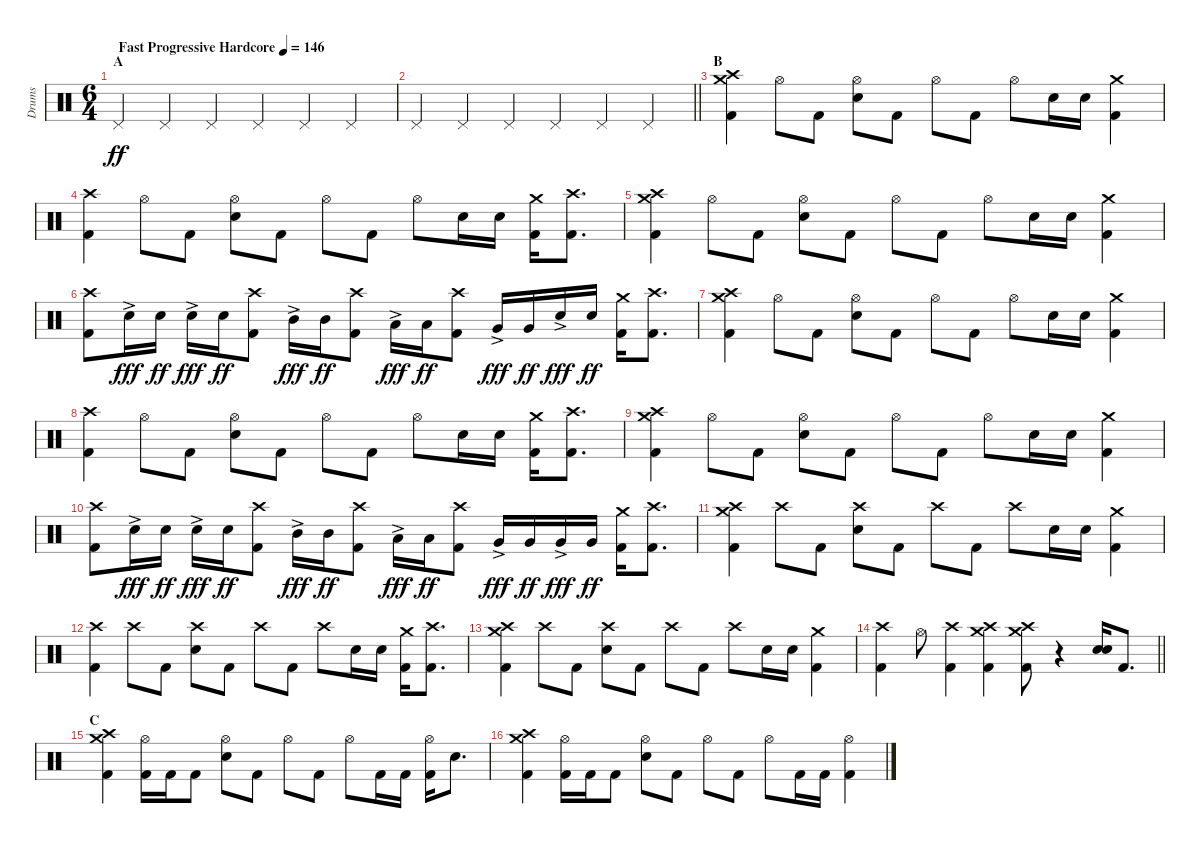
\track ("Drums" "Drums") {instrument percussion}
\staff {score}
\articulation defaults
\ts (6 4)
\section ("" "A")
\tempo (146 "Fast Progressive Hardcore")
\clef neutral
\ks c "Pedal Hi-Hat (hit)".4{dy ff} "Pedal Hi-Hat (hit)".4 "Pedal Hi-Hat (hit)".4 "Pedal Hi-Hat (hit)".4 "Pedal Hi-Hat (hit)".4 "Pedal Hi-Hat (hit)".4
|
\barLineRight lightlight "Pedal Hi-Hat (hit)".4 "Pedal Hi-Hat (hit)".4 "Pedal Hi-Hat (hit)".4 "Pedal Hi-Hat (hit)".4 "Pedal Hi-Hat (hit)".4 "Pedal Hi-Hat (hit)".4
|
\section ("" "B")
("Crash medium (hit)" "Crash high (hit)" "Kick (hit) 2").4 "Hi-Hat (open)".8 "Kick (hit) 2".8 ("Hi-Hat (open)" "Electric Snare (hit)").8 "Kick (hit) 2".8 "Hi-Hat (open)".8 "Kick (hit) 2".8 "Hi-Hat (open)".8 "Electric Snare (hit)".16 "Electric Snare (hit)".16 ("Crash medium (hit)" "Kick (hit) 2").4 |
("Crash high (hit)" "Kick (hit) 2").4 "Hi-Hat (open)".8 "Kick (hit) 2".8 ("Hi-Hat (open)" "Electric Snare (hit)").8 "Kick (hit) 2".8 "Hi-Hat (open)".8 "Kick (hit) 2".8 "Hi-Hat (open)".8 "Electric Snare (hit)".16 "Electric Snare (hit)".16 ("Crash medium (hit)" "Kick (hit) 2").16 ("Crash high (hit)" "Kick (hit) 2").8{d} |
("Crash medium (hit)" "Crash high (hit)" "Kick (hit) 2").4 "Hi-Hat (open)".8 "Kick (hit) 2".8 ("Hi-Hat (open)" "Electric Snare (hit)").8 "Kick (hit) 2".8 "Hi-Hat (open)".8 "Kick (hit) 2".8 "Hi-Hat (open)".8 "Electric Snare (hit)".16 "Electric Snare (hit)".16 ("Crash medium (hit)" "Kick (hit) 2").4 |
("Crash high (hit)" "Kick (hit) 2").8 "Electric Snare (hit)"{ac}.16{dy fff} "Electric Snare (hit)".16{dy ff} "Electric Snare (hit)"{ac}.16{dy fff} "Electric Snare (hit)".16{dy ff} ("Crash high (hit)" "Kick (hit) 2").8 "Mid Tom (hit)"{ac}.16{dy fff} "Mid Tom (hit)".16{dy ff} ("Crash high (hit)" "Kick (hit) 2").8 "Low Tom (hit)"{ac}.16{dy fff} "Low Tom (hit)".16{dy ff} ("Crash high (hit)" "Kick (hit) 2").8 "Very Low Tom (hit)"{ac}.16{dy fff} "Very Low Tom (hit)".16{dy ff} "Electric Snare (hit)"{ac}.16{dy fff} "Electric Snare (hit)".16{dy ff} ("Crash medium (hit)" "Kick (hit) 2").16 ("Crash high (hit)" "Kick (hit) 2").8{d} |
("Crash medium (hit)" "Crash high (hit)" "Kick (hit) 2").4 "Hi-Hat (open)".8 "Kick (hit) 2".8 ("Hi-Hat (open)" "Electric Snare (hit)").8 "Kick (hit) 2".8 "Hi-Hat (open)".8 "Kick (hit) 2".8 "Hi-Hat (open)".8 "Electric Snare (hit)".16 "Electric Snare (hit)".16 ("Crash medium (hit)" "Kick (hit) 2").4 |
("Crash high (hit)" "Kick (hit) 2").4 "Hi-Hat (open)".8 "Kick (hit) 2".8 ("Hi-Hat (open)" "Electric Snare (hit)").8 "Kick (hit) 2".8 "Hi-Hat (open)".8 "Kick (hit) 2".8 "Hi-Hat (open)".8 "Electric Snare (hit)".16 "Electric Snare (hit)".16 ("Crash medium (hit)" "Kick (hit) 2").16 ("Crash high (hit)" "Kick (hit) 2").8{d} |
("Crash medium (hit)" "Crash high (hit)" "Kick (hit) 2").4 "Hi-Hat (open)".8 "Kick (hit) 2".8 ("Hi-Hat (open)" "Electric Snare (hit)").8 "Kick (hit) 2".8 "Hi-Hat (open)".8 "Kick (hit) 2".8 "Hi-Hat (open)".8 "Electric Snare (hit)".16 "Electric Snare (hit)".16 ("Crash medium (hit)" "Kick (hit) 2").4 |
("Crash high (hit)" "Kick (hit) 2").8 "Electric Snare (hit)"{ac}.16{dy fff} "Electric Snare (hit)".16{dy ff} "Electric Snare (hit)"{ac}.16{dy fff} "Electric Snare (hit)".16{dy ff} ("Crash high (hit)" "Kick (hit) 2").8 "Mid Tom (hit)"{ac}.16{dy fff} "Mid Tom (hit)".16{dy ff} ("Crash high (hit)" "Kick (hit) 2").8 "Low Tom (hit)"{ac}.16{dy fff} "Low Tom (hit)".16{dy ff} ("Crash high (hit)" "Kick (hit) 2").8 "Very Low Tom (hit)"{ac}.16{dy fff} "Very Low Tom (hit)".16{dy ff} "Very Low Tom (hit)"{ac}.16{dy fff} "Very Low Tom (hit)".16{dy ff} ("Crash medium (hit)" "Kick (hit) 2").16 ("Crash high (hit)" "Kick (hit) 2").8{d} |
("Crash medium (hit)" "Crash high (hit)" "Kick (hit) 2").4 "Crash high (hit)".8 "Kick (hit) 2".8 ("Crash high (hit)" "Electric Snare (hit)").8 "Kick (hit) 2".8 "Crash high (hit)".8 "Kick (hit) 2".8 "Crash high (hit)".8 "Electric Snare (hit)".16 "Electric Snare (hit)".16 ("Crash medium (hit)" "Kick (hit) 2").4 |
("Crash high (hit)" "Kick (hit) 2").4 "Crash high (hit)".8 "Kick (hit) 2".8 ("Crash high (hit)" "Electric Snare (hit)").8 "Kick (hit) 2".8 "Crash high (hit)".8 "Kick (hit) 2".8 "Crash high (hit)".8 "Electric Snare (hit)".16 "Electric Snare (hit)".16 ("Crash medium (hit)" "Kick (hit) 2").16 ("Crash high (hit)" "Kick (hit) 2").8{d} |
("Crash medium (hit)" "Crash high (hit)" "Kick (hit) 2").4 "Crash high (hit)".8 "Kick (hit) 2".8 ("Crash high (hit)" "Electric Snare (hit)").8 "Kick (hit) 2".8 "Crash high (hit)".8 "Kick (hit) 2".8 "Crash high (hit)".8 "Electric Snare (hit)".16 "Electric Snare (hit)".16 ("Crash medium (hit)" "Kick (hit) 2").4 |
\barLineRight lightlight
("Crash high (hit)" "Kick (hit) 2").4 "Hi-Hat (open)".8 ("Crash high (hit)" "Kick (hit) 2").4 ("Crash medium (hit)" "Crash high (hit)" "Kick (hit) 2").4 ("Crash medium (hit)" "Crash high (hit)" "Kick (hit) 2").8 r.4{volume 0} ("Electric Snare (hit)" "Electric Snare (hit)").16{bu 60 volume 14} "Kick (hit) 2".8{d} |
\section ("" "C")
("Crash medium (hit)" "Crash high (hit)" "Kick (hit) 2").4 ("Hi-Hat (open)" "Kick (hit) 2").16 "Kick (hit) 2".16 "Kick (hit) 2".8 ("Hi-Hat (open)" "Electric Snare (hit)").8 "Kick (hit) 2".8 "Hi-Hat (open)".8 "Kick (hit) 2".8 "Hi-Hat (open)".8 "Kick (hit) 2".16 "Kick (hit) 2".16 ("Hi-Hat (open)" "Kick (hit) 2").16 "Electric Snare (hit)".8{d} |
("Crash medium (hit)" "Crash high (hit)" "Kick (hit) 2").4 ("Hi-Hat (open)" "Kick (hit) 2").16 "Kick (hit) 2".16 "Kick (hit) 2".8 ("Hi-Hat (open)" "Electric Snare (hit)").8 "Kick (hit) 2".8 "Hi-Hat (open)".8 "Kick (hit) 2".8 "Hi-Hat (open)".8 "Kick (hit) 2".16 "Kick (hit) 2".16 ("Hi-Hat (open)" "Kick (hit) 2").4
